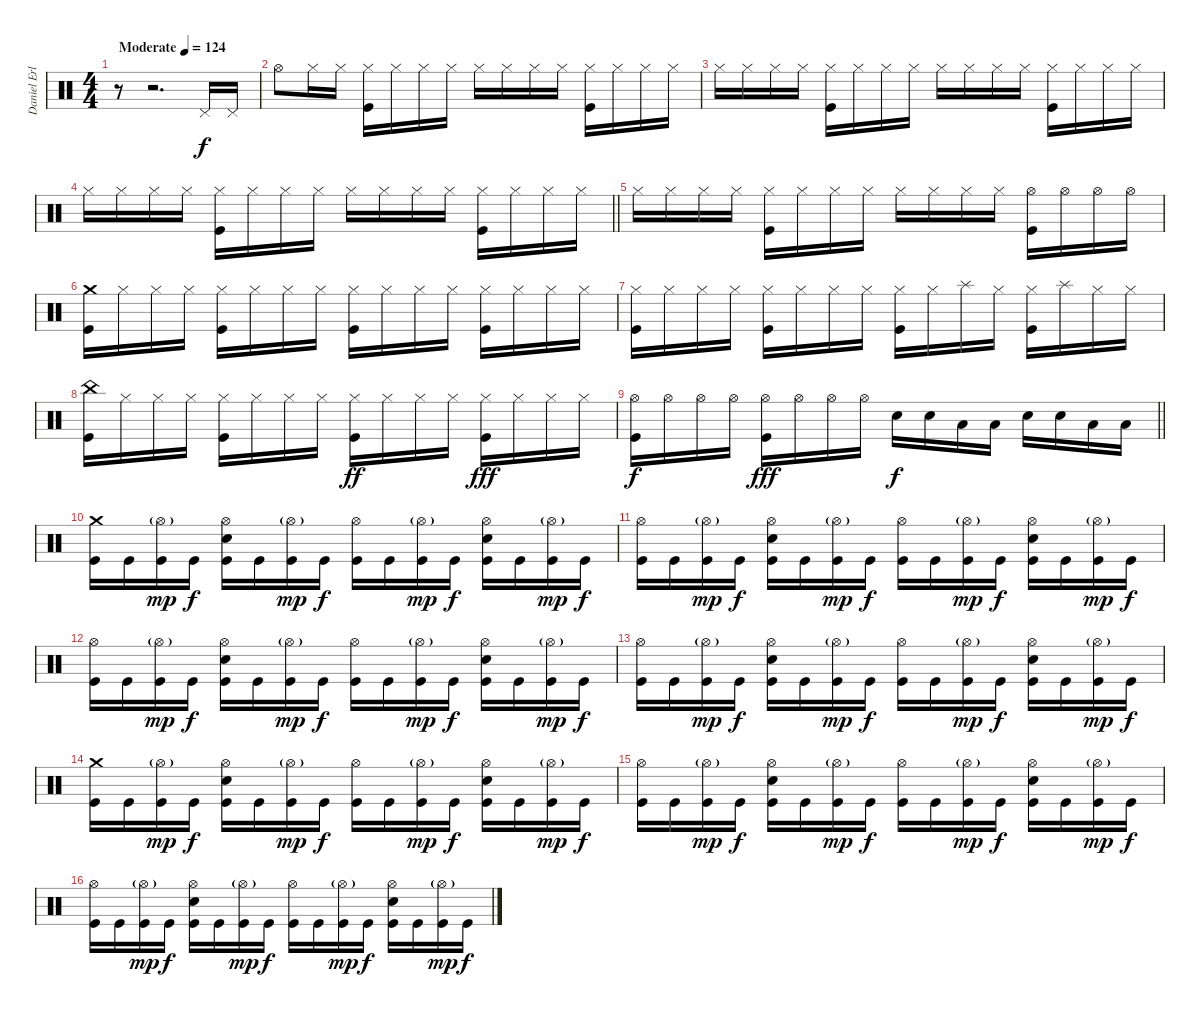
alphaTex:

\track ("Daniel Erlandsson" "Daniel Erl") {instrument percussion}
\staff {score}
\articulation defaults
\ts (4 4)
\section ("" "")
\tempo (124 "Moderate")
\clef neutral
\ks c
r.8{dy f} r.2{d} "Pedal Hi-Hat (hit)".16 "Pedal Hi-Hat (hit)".16 |
"Hi-Hat (open)".8 "Hi-Hat (closed)".16 "Hi-Hat (closed)".16 ("Hi-Hat (closed)" "Kick (hit)").16 "Hi-Hat (closed)".16 "Hi-Hat (closed)".16 "Hi-Hat (closed)".16 "Hi-Hat (closed)".16 "Hi-Hat (closed)".16 "Hi-Hat (closed)".16 "Hi-Hat (closed)".16 ("Hi-Hat (closed)" "Kick (hit)").16 "Hi-Hat (closed)".16 "Hi-Hat (closed)".16 "Hi-Hat (closed)".16 |
"Hi-Hat (closed)".16 "Hi-Hat (closed)".16 "Hi-Hat (closed)".16 "Hi-Hat (closed)".16 ("Hi-Hat (closed)" "Kick (hit)").16 "Hi-Hat (closed)".16 "Hi-Hat (closed)".16 "Hi-Hat (closed)".16 "Hi-Hat (closed)".16 "Hi-Hat (closed)".16 "Hi-Hat (closed)".16 "Hi-Hat (closed)".16 ("Hi-Hat (closed)" "Kick (hit)").16 "Hi-Hat (closed)".16 "Hi-Hat (closed)".16 "Hi-Hat (closed)".16 |
\barLineRight lightlight "Hi-Hat (closed)".16 "Hi-Hat (closed)".16 "Hi-Hat (closed)".16 "Hi-Hat (closed)".16
("Hi-Hat (closed)" "Kick (hit)").16 "Hi-Hat (closed)".16 "Hi-Hat (closed)".16 "Hi-Hat (closed)".16 "Hi-Hat (closed)".16 "Hi-Hat (closed)".16 "Hi-Hat (closed)".16 "Hi-Hat (closed)".16 ("Hi-Hat (closed)" "Kick (hit)").16 "Hi-Hat (closed)".16 "Hi-Hat (closed)".16 "Hi-Hat (closed)".16 |
\section ("" "")
"Hi-Hat (closed)".16 "Hi-Hat (closed)".16 "Hi-Hat (closed)".16 "Hi-Hat (closed)".16 ("Hi-Hat (closed)" "Kick (hit)").16 "Hi-Hat (closed)".16 "Hi-Hat (closed)".16 "Hi-Hat (closed)".16 "Hi-Hat (closed)".16 "Hi-Hat (closed)".16 "Hi-Hat (closed)".16 "Hi-Hat (closed)".16 ("Hi-Hat (open)" "Kick (hit)").16 "Hi-Hat (open)".16 "Hi-Hat (open)".16 "Hi-Hat (open)".16 |
("Crash medium (hit)" "Kick (hit)").16 "Hi-Hat (closed)".16 "Hi-Hat (closed)".16 "Hi-Hat (closed)".16 ("Hi-Hat (closed)" "Kick (hit)").16 "Hi-Hat (closed)".16 "Hi-Hat (closed)".16 "Hi-Hat (closed)".16 ("Hi-Hat (closed)" "Kick (hit)").16 "Hi-Hat (closed)".16 "Hi-Hat (closed)".16 "Hi-Hat (closed)".16 ("Hi-Hat (closed)" "Kick (hit)").16 "Hi-Hat (closed)".16 "Hi-Hat (closed)".16 "Hi-Hat (closed)".16 |
("Hi-Hat (closed)" "Kick (hit)").16 "Hi-Hat (closed)".16 "Hi-Hat (closed)".16 "Hi-Hat (closed)".16 ("Hi-Hat (closed)" "Kick (hit)").16 "Hi-Hat (closed)".16 "Hi-Hat (closed)".16 "Hi-Hat (closed)".16 ("Hi-Hat (closed)" "Kick (hit)").16 "Hi-Hat (closed)".16 "Splash (hit)".16 "Hi-Hat (closed)".16 ("Hi-Hat (closed)" "Kick (hit)").16 "Splash (hit)".16 "Hi-Hat (closed)".16 "Hi-Hat (closed)".16 |
("China (hit)" "Kick (hit)").16 "Hi-Hat (closed)".16 "Hi-Hat (closed)".16 "Hi-Hat (closed)".16 ("Hi-Hat (closed)" "Kick (hit)").16 "Hi-Hat (closed)".16 "Hi-Hat (closed)".16 "Hi-Hat (closed)".16 ("Hi-Hat (closed)" "Kick (hit)").16{dy ff} "Hi-Hat (closed)".16 "Hi-Hat (closed)".16 "Hi-Hat (closed)".16 ("Hi-Hat (closed)" "Kick (hit)").16{dy fff} "Hi-Hat (closed)".16 "Hi-Hat (closed)".16 "Hi-Hat (closed)".16 |
\barLineRight lightlight
("Hi-Hat (open)" "Kick (hit)").16{dy f} "Hi-Hat (open)".16 "Hi-Hat (open)".16 "Hi-Hat (open)".16 ("Hi-Hat (open)" "Kick (hit)").16{dy fff} "Hi-Hat (open)".16 "Hi-Hat (open)".16 "Hi-Hat (open)".16 "Snare (hit) 2".16{dy f} "Snare (hit) 2".16 "Low Tom (hit)".16 "Low Tom (hit)".16 "Snare (hit) 2".16 "Snare (hit) 2".16 "Low Tom (hit)".16 "Low Tom (hit)".16 |
\section ("" "")
("Crash medium (hit)" "Kick (hit)").16 "Kick (hit)".16 ("Hi-Hat (open)"{g} "Kick (hit)").16{dy mp} "Kick (hit)".16{dy f} ("Hi-Hat (open)" "Snare (hit) 2" "Kick (hit)").16 "Kick (hit)".16 ("Hi-Hat (open)"{g} "Kick (hit)").16{dy mp} "Kick (hit)".16{dy f} ("Hi-Hat (open)" "Kick (hit)").16 "Kick (hit)".16 ("Hi-Hat (open)"{g} "Kick (hit)").16{dy mp} "Kick (hit)".16{dy f} ("Hi-Hat (open)" "Snare (hit) 2" "Kick (hit)").16 "Kick (hit)".16 ("Hi-Hat (open)"{g} "Kick (hit)").16{dy mp} "Kick (hit)".16{dy f} |
("Hi-Hat (open)" "Kick (hit)").16 "Kick (hit)".16 ("Hi-Hat (open)"{g} "Kick (hit)").16{dy mp} "Kick (hit)".16{dy f} ("Hi-Hat (open)" "Snare (hit) 2" "Kick (hit)").16 "Kick (hit)".16 ("Hi-Hat (open)"{g} "Kick (hit)").16{dy mp} "Kick (hit)".16{dy f} ("Hi-Hat (open)" "Kick (hit)").16 "Kick (hit)".16 ("Hi-Hat (open)"{g} "Kick (hit)").16{dy mp} "Kick (hit)".16{dy f} ("Hi-Hat (open)" "Snare (hit) 2" "Kick (hit)").16 "Kick (hit)".16 ("Hi-Hat (open)"{g} "Kick (hit)").16{dy mp} "Kick (hit)".16{dy f} |
("Hi-Hat (open)" "Kick (hit)").16 "Kick (hit)".16 ("Hi-Hat (open)"{g} "Kick (hit)").16{dy mp} "Kick (hit)".16{dy f} ("Hi-Hat (open)" "Snare (hit) 2" "Kick (hit)").16 "Kick (hit)".16 ("Hi-Hat (open)"{g} "Kick (hit)").16{dy mp} "Kick (hit)".16{dy f} ("Hi-Hat (open)" "Kick (hit)").16 "Kick (hit)".16 ("Hi-Hat (open)"{g} "Kick (hit)").16{dy mp} "Kick (hit)".16{dy f} ("Hi-Hat (open)" "Snare (hit) 2" "Kick (hit)").16 "Kick (hit)".16 ("Hi-Hat (open)"{g} "Kick (hit)").16{dy mp} "Kick (hit)".16{dy f} |
("Hi-Hat (open)" "Kick (hit)").16 "Kick (hit)".16 ("Hi-Hat (open)"{g} "Kick (hit)").16{dy mp} "Kick (hit)".16{dy f} ("Hi-Hat (open)" "Snare (hit) 2" "Kick (hit)").16 "Kick (hit)".16 ("Hi-Hat (open)"{g} "Kick (hit)").16{dy mp} "Kick (hit)".16{dy f} ("Hi-Hat (open)" "Kick (hit)").16 "Kick (hit)".16 ("Hi-Hat (open)"{g} "Kick (hit)").16{dy mp} "Kick (hit)".16{dy f} ("Hi-Hat (open)" "Snare (hit) 2" "Kick (hit)").16 "Kick (hit)".16 ("Hi-Hat (open)"{g} "Kick (hit)").16{dy mp} "Kick (hit)".16{dy f} |
("Crash medium (hit)" "Kick (hit)").16 "Kick (hit)".16 ("Hi-Hat (open)"{g} "Kick (hit)").16{dy mp} "Kick (hit)".16{dy f} ("Hi-Hat (open)" "Snare (hit) 2" "Kick (hit)").16 "Kick (hit)".16 ("Hi-Hat (open)"{g} "Kick (hit)").16{dy mp} "Kick (hit)".16{dy f} ("Hi-Hat (open)" "Kick (hit)").16 "Kick (hit)".16 ("Hi-Hat (open)"{g} "Kick (hit)").16{dy mp} "Kick (hit)".16{dy f} ("Hi-Hat (open)" "Snare (hit) 2" "Kick (hit)").16 "Kick (hit)".16 ("Hi-Hat (open)"{g} "Kick (hit)").16{dy mp} "Kick (hit)".16{dy f} |
("Hi-Hat (open)" "Kick (hit)").16 "Kick (hit)".16 ("Hi-Hat (open)"{g} "Kick (hit)").16{dy mp} "Kick (hit)".16{dy f} ("Hi-Hat (open)" "Snare (hit) 2" "Kick (hit)").16 "Kick (hit)".16 ("Hi-Hat (open)"{g} "Kick (hit)").16{dy mp} "Kick (hit)".16{dy f} ("Hi-Hat (open)" "Kick (hit)").16 "Kick (hit)".16 ("Hi-Hat (open)"{g} "Kick (hit)").16{dy mp} "Kick (hit)".16{dy f} ("Hi-Hat (open)" "Snare (hit) 2" "Kick (hit)").16 "Kick (hit)".16 ("Hi-Hat (open)"{g} "Kick (hit)").16{dy mp} "Kick (hit)".16{dy f} |
("Hi-Hat (open)" "Kick (hit)").16 "Kick (hit)".16 ("Hi-Hat (open)"{g} "Kick (hit)").16{dy mp} "Kick (hit)".16{dy f} ("Hi-Hat (open)" "Snare (hit) 2" "Kick (hit)").16 "Kick (hit)".16 ("Hi-Hat (open)"{g} "Kick (hit)").16{dy mp} "Kick (hit)".16{dy f} ("Hi-Hat (open)" "Kick (hit)").16 "Kick (hit)".16 ("Hi-Hat (open)"{g} "Kick (hit)").16{dy mp} "Kick (hit)".16{dy f} ("Hi-Hat (open)" "Snare (hit) 2" "Kick (hit)").16 "Kick (hit)".16 ("Hi-Hat (open)"{g} "Kick (hit)").16{dy mp} "Kick (hit)".16{dy f}
